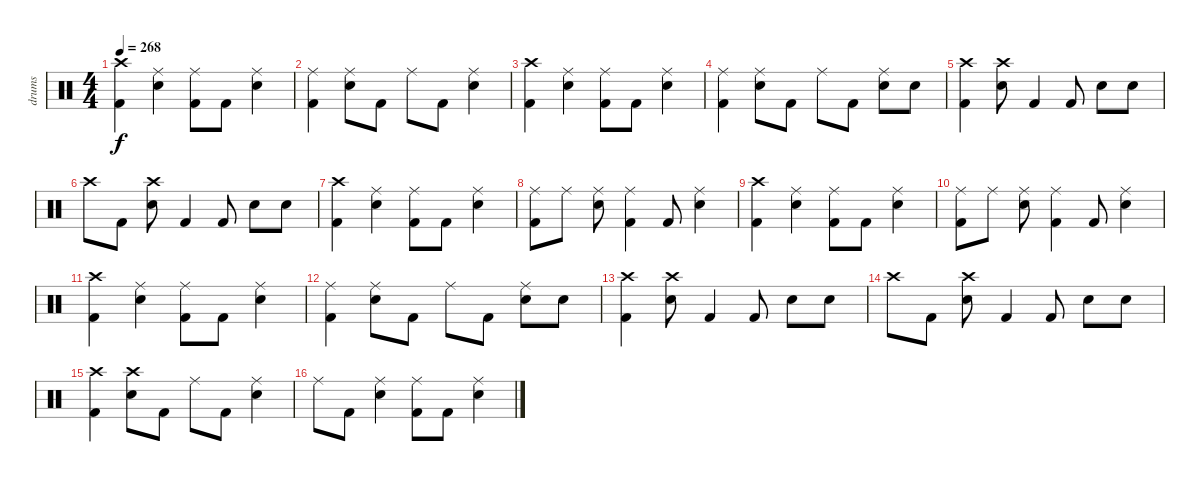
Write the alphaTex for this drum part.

\track ("drums" "drums") {instrument percussion}
\staff {score}
\articulation defaults
\ts (4 4)
\tempo 268
\clef neutral
\ks c
("Crash high (hit)" "Kick (hit) 2").4{dy f} ("Ride (middle)" "Electric Snare (hit)").4 ("Ride (middle)" "Kick (hit) 2").8 "Kick (hit) 2".8 ("Ride (middle)" "Electric Snare (hit)").4 |
("Ride (middle)" "Kick (hit) 2").4 ("Ride (middle)" "Electric Snare (hit)").8 "Kick (hit) 2".8 "Ride (middle)".8 "Kick (hit) 2".8 ("Ride (middle)" "Electric Snare (hit)").4 |
("Crash high (hit)" "Kick (hit) 2").4 ("Ride (middle)" "Electric Snare (hit)").4 ("Ride (middle)" "Kick (hit) 2").8 "Kick (hit) 2".8 ("Ride (middle)" "Electric Snare (hit)").4 |
("Ride (middle)" "Kick (hit) 2").4 ("Ride (middle)" "Electric Snare (hit)").8 "Kick (hit) 2".8 "Ride (middle)".8 "Kick (hit) 2".8 ("Ride (middle)" "Electric Snare (hit)").8 "Electric Snare (hit)".8 |
("Crash high (hit)" "Kick (hit) 2").4 ("Crash high (hit)" "Electric Snare (hit)").8 "Kick (hit) 2".4 "Kick (hit) 2".8 "Electric Snare (hit)".8 "Electric Snare (hit)".8 |
"Crash high (hit)".8 "Kick (hit) 2".8 ("Crash high (hit)" "Electric Snare (hit)").8 "Kick (hit) 2".4 "Kick (hit) 2".8 "Electric Snare (hit)".8 "Electric Snare (hit)".8 |
("Crash high (hit)" "Kick (hit) 2").4 ("Ride (middle)" "Electric Snare (hit)").4 ("Ride (middle)" "Kick (hit) 2").8 "Kick (hit) 2".8 ("Ride (middle)" "Electric Snare (hit)").4 |
("Ride (middle)" "Kick (hit) 2").8 "Ride (middle)".8 ("Ride (middle)" "Electric Snare (hit)").8 ("Ride (middle)" "Kick (hit) 2").4 "Kick (hit) 2".8 ("Ride (middle)" "Electric Snare (hit)").4 |
("Crash high (hit)" "Kick (hit) 2").4 ("Ride (middle)" "Electric Snare (hit)").4 ("Ride (middle)" "Kick (hit) 2").8 "Kick (hit) 2".8 ("Ride (middle)" "Electric Snare (hit)").4 |
("Ride (middle)" "Kick (hit) 2").8 "Ride (middle)".8 ("Ride (middle)" "Electric Snare (hit)").8 ("Ride (middle)" "Kick (hit) 2").4 "Kick (hit) 2".8 ("Ride (middle)" "Electric Snare (hit)").4 |
("Crash high (hit)" "Kick (hit) 2").4 ("Ride (middle)" "Electric Snare (hit)").4 ("Ride (middle)" "Kick (hit) 2").8 "Kick (hit) 2".8 ("Ride (middle)" "Electric Snare (hit)").4 |
("Ride (middle)" "Kick (hit) 2").4 ("Ride (middle)" "Electric Snare (hit)").8 "Kick (hit) 2".8 "Ride (middle)".8 "Kick (hit) 2".8 ("Ride (middle)" "Electric Snare (hit)").8 "Electric Snare (hit)".8 |
("Crash high (hit)" "Kick (hit) 2").4 ("Crash high (hit)" "Electric Snare (hit)").8 "Kick (hit) 2".4 "Kick (hit) 2".8 "Electric Snare (hit)".8 "Electric Snare (hit)".8 |
"Crash high (hit)".8 "Kick (hit) 2".8 ("Crash high (hit)" "Electric Snare (hit)").8 "Kick (hit) 2".4 "Kick (hit) 2".8 "Electric Snare (hit)".8 "Electric Snare (hit)".8 |
("Crash high (hit)" "Kick (hit) 2").4 ("Crash high (hit)" "Electric Snare (hit)").8 "Kick (hit) 2".8 "Ride (middle)".8 "Kick (hit) 2".8 ("Ride (middle)" "Electric Snare (hit)").4 |
"Ride (middle)".8 "Kick (hit) 2".8 ("Ride (middle)" "Electric Snare (hit)").4 ("Ride (middle)" "Kick (hit) 2").8 "Kick (hit) 2".8 ("Ride (middle)" "Electric Snare (hit)").4
